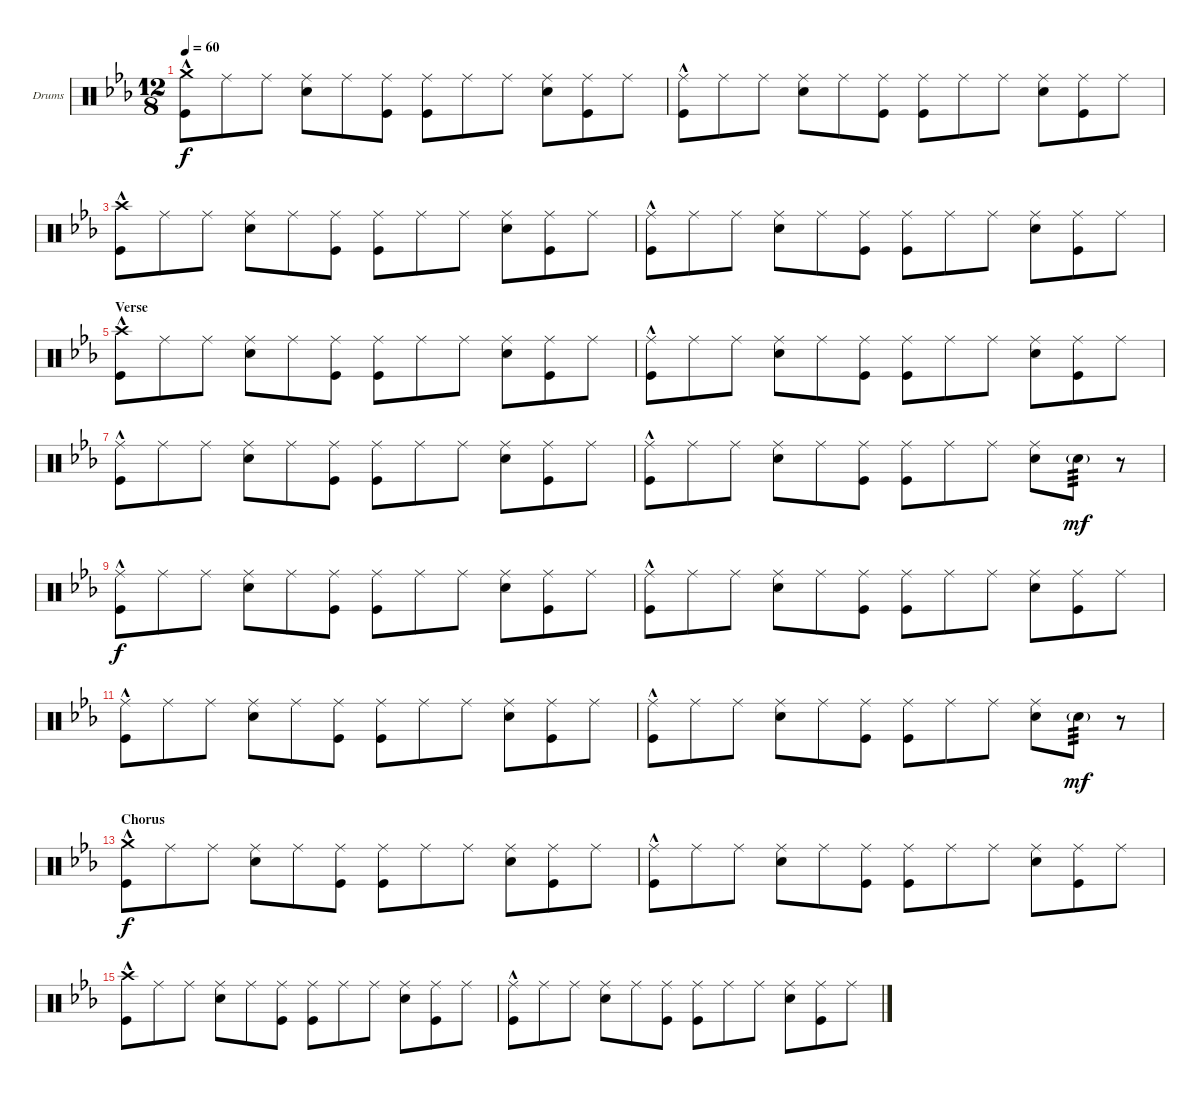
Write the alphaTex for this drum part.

\bracketExtendMode nobrackets
\firstSystemTrackNameOrientation horizontal
\otherSystemsTrackNameOrientation horizontal
\defaultBarNumberDisplay FirstOfSystem
\track ("Drumkit" "Drums") {instrument percussion}
\staff {score}
\articulation defaults
\ts (12 8)
\tempo 60
\clef neutral
\scale
0.333333
\ks cminor
("Crash medium (hit)" "Kick (hit)"{hac}).8{dy f} "Ride (middle)".8 "Ride (middle)".8 ("Ride (middle)" "Snare (hit) 2").8 "Ride (middle)".8 ("Ride (middle)" "Kick (hit)").8 ("Ride (middle)" "Kick (hit)").8 "Ride (middle)".8 "Ride (middle)".8 ("Ride (middle)" "Snare (hit) 2").8 ("Ride (middle)" "Kick (hit)").8 "Ride (middle)".8 |
\scale
0.333333 ("Ride (middle)" "Kick (hit)"{hac}).8 "Ride (middle)".8 "Ride (middle)".8 ("Ride (middle)" "Snare (hit) 2").8 "Ride (middle)".8 ("Ride (middle)" "Kick (hit)").8 ("Ride (middle)" "Kick (hit)").8 "Ride (middle)".8 "Ride (middle)".8 ("Ride (middle)" "Snare (hit) 2").8 ("Ride (middle)" "Kick (hit)").8 "Ride (middle)".8 |
\scale
0.333333 ("Crash high (hit)" "Kick (hit)"{hac}).8 "Ride (middle)".8 "Ride (middle)".8 ("Ride (middle)" "Snare (hit) 2").8 "Ride (middle)".8 ("Ride (middle)" "Kick (hit)").8 ("Ride (middle)" "Kick (hit)").8 "Ride (middle)".8 "Ride (middle)".8 ("Ride (middle)" "Snare (hit) 2").8 ("Ride (middle)" "Kick (hit)").8 "Ride (middle)".8 |
\scale
0.333333 ("Ride (middle)" "Kick (hit)"{hac}).8 "Ride (middle)".8 "Ride (middle)".8 ("Ride (middle)" "Snare (hit) 2").8 "Ride (middle)".8 ("Ride (middle)" "Kick (hit)").8 ("Ride (middle)" "Kick (hit)").8 "Ride (middle)".8 "Ride (middle)".8 ("Ride (middle)" "Snare (hit) 2").8 ("Ride (middle)" "Kick (hit)").8 "Ride (middle)".8 |
\section ("" "Verse")
\scale
0.333333 ("Crash high (hit)" "Kick (hit)"{hac}).8 "Ride (middle)".8 "Ride (middle)".8 ("Ride (middle)" "Snare (hit) 2").8 "Ride (middle)".8 ("Ride (middle)" "Kick (hit)").8 ("Ride (middle)" "Kick (hit)").8 "Ride (middle)".8 "Ride (middle)".8 ("Ride (middle)" "Snare (hit) 2").8 ("Ride (middle)" "Kick (hit)").8 "Ride (middle)".8 |
\scale
0.333333 ("Ride (middle)" "Kick (hit)"{hac}).8 "Ride (middle)".8 "Ride (middle)".8 ("Ride (middle)" "Snare (hit) 2").8 "Ride (middle)".8 ("Ride (middle)" "Kick (hit)").8 ("Ride (middle)" "Kick (hit)").8 "Ride (middle)".8 "Ride (middle)".8 ("Ride (middle)" "Snare (hit) 2").8 ("Ride (middle)" "Kick (hit)").8 "Ride (middle)".8 |
\scale
0.333333 ("Ride (middle)" "Kick (hit)"{hac}).8 "Ride (middle)".8 "Ride (middle)".8 ("Ride (middle)" "Snare (hit) 2").8 "Ride (middle)".8 ("Ride (middle)" "Kick (hit)").8 ("Ride (middle)" "Kick (hit)").8 "Ride (middle)".8 "Ride (middle)".8 ("Ride (middle)" "Snare (hit) 2").8 ("Ride (middle)" "Kick (hit)").8 "Ride (middle)".8 |
\scale
0.333333 ("Ride (middle)" "Kick (hit)"{hac}).8 "Ride (middle)".8 "Ride (middle)".8 ("Ride (middle)" "Snare (hit) 2").8 "Ride (middle)".8 ("Ride (middle)" "Kick (hit)").8 ("Ride (middle)" "Kick (hit)").8 "Ride (middle)".8 "Ride (middle)".8 ("Ride (middle)" "Snare (hit) 2").8 "Snare (hit) 2"{g}.8{tp 3 dy mf} r.8 |
\scale
0.333333 ("Ride (middle)" "Kick (hit)"{hac}).8{dy f} "Ride (middle)".8 "Ride (middle)".8 ("Ride (middle)" "Snare (hit) 2").8 "Ride (middle)".8 ("Ride (middle)" "Kick (hit)").8 ("Ride (middle)" "Kick (hit)").8 "Ride (middle)".8 "Ride (middle)".8 ("Ride (middle)" "Snare (hit) 2").8 ("Ride (middle)" "Kick (hit)").8 "Ride (middle)".8 |
\scale
0.333333 ("Ride (middle)" "Kick (hit)"{hac}).8 "Ride (middle)".8 "Ride (middle)".8 ("Ride (middle)" "Snare (hit) 2").8 "Ride (middle)".8 ("Ride (middle)" "Kick (hit)").8 ("Ride (middle)" "Kick (hit)").8 "Ride (middle)".8 "Ride (middle)".8 ("Ride (middle)" "Snare (hit) 2").8 ("Ride (middle)" "Kick (hit)").8 "Ride (middle)".8 |
\scale
0.333333 ("Ride (middle)" "Kick (hit)"{hac}).8 "Ride (middle)".8 "Ride (middle)".8 ("Ride (middle)" "Snare (hit) 2").8 "Ride (middle)".8 ("Ride (middle)" "Kick (hit)").8 ("Ride (middle)" "Kick (hit)").8 "Ride (middle)".8 "Ride (middle)".8 ("Ride (middle)" "Snare (hit) 2").8 ("Ride (middle)" "Kick (hit)").8 "Ride (middle)".8 |
\scale
0.333333 ("Ride (middle)" "Kick (hit)"{hac}).8 "Ride (middle)".8 "Ride (middle)".8 ("Ride (middle)" "Snare (hit) 2").8 "Ride (middle)".8 ("Ride (middle)" "Kick (hit)").8 ("Ride (middle)" "Kick (hit)").8 "Ride (middle)".8 "Ride (middle)".8 ("Ride (middle)" "Snare (hit) 2").8 "Snare (hit) 2"{g}.8{tp 3 dy mf} r.8 |
\section ("" "Chorus")
\scale
0.333333 ("Crash medium (hit)" "Kick (hit)"{hac}).8{dy f} "Ride (middle)".8 "Ride (middle)".8 ("Ride (middle)" "Snare (hit) 2").8 "Ride (middle)".8 ("Ride (middle)" "Kick (hit)").8 ("Ride (middle)" "Kick (hit)").8 "Ride (middle)".8 "Ride (middle)".8 ("Ride (middle)" "Snare (hit) 2").8 ("Ride (middle)" "Kick (hit)").8 "Ride (middle)".8 |
\scale
0.333333 ("Ride (middle)" "Kick (hit)"{hac}).8 "Ride (middle)".8 "Ride (middle)".8 ("Ride (middle)" "Snare (hit) 2").8 "Ride (middle)".8 ("Ride (middle)" "Kick (hit)").8 ("Ride (middle)" "Kick (hit)").8 "Ride (middle)".8 "Ride (middle)".8 ("Ride (middle)" "Snare (hit) 2").8 ("Ride (middle)" "Kick (hit)").8 "Ride (middle)".8 |
\scale
0.333333 ("Crash high (hit)" "Kick (hit)"{hac}).8 "Ride (middle)".8 "Ride (middle)".8 ("Ride (middle)" "Snare (hit) 2").8 "Ride (middle)".8 ("Ride (middle)" "Kick (hit)").8 ("Ride (middle)" "Kick (hit)").8 "Ride (middle)".8 "Ride (middle)".8 ("Ride (middle)" "Snare (hit) 2").8 ("Ride (middle)" "Kick (hit)").8 "Ride (middle)".8 |
\scale
0.333333 ("Ride (middle)" "Kick (hit)"{hac}).8 "Ride (middle)".8 "Ride (middle)".8 ("Ride (middle)" "Snare (hit) 2").8 "Ride (middle)".8 ("Ride (middle)" "Kick (hit)").8 ("Ride (middle)" "Kick (hit)").8 "Ride (middle)".8 "Ride (middle)".8 ("Ride (middle)" "Snare (hit) 2").8 ("Ride (middle)" "Kick (hit)").8 "Ride (middle)".8
